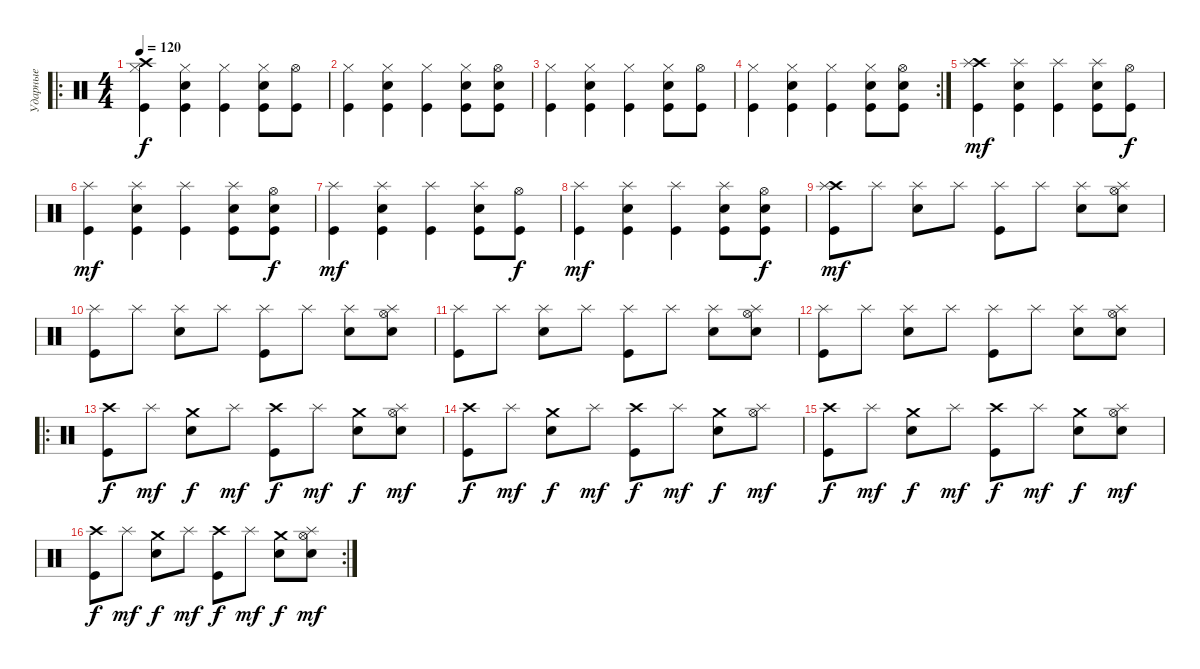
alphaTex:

\track ("Ударные" "Ударные") {instrument percussion}
\staff
\articulation defaults
\ro
\ts (4 4)
\tempo 120
\clef neutral
\ks c
("Crash high (hit)" "Hi-Hat (closed)" "Kick (hit)").4{dy f} ("Hi-Hat (closed)" "Snare (hit) 2" "Kick (hit)").4 ("Hi-Hat (closed)" "Kick (hit)").4 ("Hi-Hat (closed)" "Snare (hit) 2" "Kick (hit)").8 ("Hi-Hat (open)" "Kick (hit)").8 |
("Hi-Hat (closed)" "Kick (hit)").4 ("Hi-Hat (closed)" "Snare (hit) 2" "Kick (hit)").4 ("Hi-Hat (closed)" "Kick (hit)").4 ("Hi-Hat (closed)" "Snare (hit) 2" "Kick (hit)").8 ("Hi-Hat (open)" "Snare (hit) 2" "Kick (hit)").8 |
("Hi-Hat (closed)" "Kick (hit)").4 ("Hi-Hat (closed)" "Snare (hit) 2" "Kick (hit)").4 ("Hi-Hat (closed)" "Kick (hit)").4 ("Hi-Hat (closed)" "Snare (hit) 2" "Kick (hit)").8 ("Hi-Hat (open)" "Kick (hit)").8 |
\rc 2
("Hi-Hat (closed)" "Kick (hit)").4 ("Hi-Hat (closed)" "Snare (hit) 2" "Kick (hit)").4 ("Hi-Hat (closed)" "Kick (hit)").4 ("Hi-Hat (closed)" "Snare (hit) 2" "Kick (hit)").8 ("Hi-Hat (open)" "Snare (hit) 2" "Kick (hit)").8 |
("Crash high (hit)" "Splash (hit)" "Kick (hit)").4{dy mf} ("Splash (hit)" "Snare (hit) 2" "Kick (hit)").4 ("Splash (hit)" "Kick (hit)").4 ("Splash (hit)" "Snare (hit) 2" "Kick (hit)").8 ("Hi-Hat (open)" "Kick (hit)").8{dy f} |
("Splash (hit)" "Kick (hit)").4{dy mf} ("Splash (hit)" "Snare (hit) 2" "Kick (hit)").4 ("Splash (hit)" "Kick (hit)").4 ("Splash (hit)" "Snare (hit) 2" "Kick (hit)").8 ("Hi-Hat (open)" "Snare (hit) 2" "Kick (hit)").8{dy f} |
("Splash (hit)" "Kick (hit)").4{dy mf} ("Splash (hit)" "Snare (hit) 2" "Kick (hit)").4 ("Splash (hit)" "Kick (hit)").4 ("Splash (hit)" "Snare (hit) 2" "Kick (hit)").8 ("Hi-Hat (open)" "Kick (hit)").8{dy f} |
("Splash (hit)" "Kick (hit)").4{dy mf} ("Splash (hit)" "Snare (hit) 2" "Kick (hit)").4 ("Splash (hit)" "Kick (hit)").4 ("Splash (hit)" "Snare (hit) 2" "Kick (hit)").8 ("Hi-Hat (open)" "Snare (hit) 2" "Kick (hit)").8{dy f} |
("Crash high (hit)" "Splash (hit)" "Kick (hit)").8{dy mf} "Splash (hit)".8 ("Splash (hit)" "Snare (hit) 2").8 "Splash (hit)".8 ("Splash (hit)" "Kick (hit)").8 "Splash (hit)".8 ("Splash (hit)" "Snare (hit) 2").8 ("Splash (hit)" "Hi-Hat (open)" "Snare (hit) 2").8 |
("Splash (hit)" "Kick (hit)").8 "Splash (hit)".8 ("Splash (hit)" "Snare (hit) 2").8 "Splash (hit)".8 ("Splash (hit)" "Kick (hit)").8 "Splash (hit)".8 ("Splash (hit)" "Snare (hit) 2").8 ("Splash (hit)" "Hi-Hat (open)" "Snare (hit) 2").8 |
("Splash (hit)" "Kick (hit)").8 "Splash (hit)".8 ("Splash (hit)" "Snare (hit) 2").8 "Splash (hit)".8 ("Splash (hit)" "Kick (hit)").8 "Splash (hit)".8 ("Splash (hit)" "Snare (hit) 2").8 ("Splash (hit)" "Hi-Hat (open)" "Snare (hit) 2").8 |
("Splash (hit)" "Kick (hit)").8 "Splash (hit)".8 ("Splash (hit)" "Snare (hit) 2").8 "Splash (hit)".8 ("Splash (hit)" "Kick (hit)").8 "Splash (hit)".8 ("Splash (hit)" "Snare (hit) 2").8 ("Splash (hit)" "Hi-Hat (open)" "Snare (hit) 2").8 |
\ro
("Crash high (hit)" "Kick (hit)").8{dy f} "Splash (hit)".8{dy mf} ("Crash medium (hit)" "Snare (hit) 2").8{dy f} "Splash (hit)".8{dy mf} ("Crash high (hit)" "Kick (hit)").8{dy f} "Splash (hit)".8{dy mf} ("Crash medium (hit)" "Snare (hit) 2").8{dy f} ("Splash (hit)" "Hi-Hat (open)" "Snare (hit) 2").8{dy mf} |
("Crash high (hit)" "Kick (hit)").8{dy f} "Splash (hit)".8{dy mf} ("Crash medium (hit)" "Snare (hit) 2").8{dy f} "Splash (hit)".8{dy mf} ("Crash high (hit)" "Kick (hit)").8{dy f} "Splash (hit)".8{dy mf} ("Crash medium (hit)" "Snare (hit) 2").8{dy f} ("Splash (hit)" "Hi-Hat (open)").8{dy mf} |
("Crash high (hit)" "Kick (hit)").8{dy f} "Splash (hit)".8{dy mf} ("Crash medium (hit)" "Snare (hit) 2").8{dy f} "Splash (hit)".8{dy mf} ("Crash high (hit)" "Kick (hit)").8{dy f} "Splash (hit)".8{dy mf} ("Crash medium (hit)" "Snare (hit) 2").8{dy f} ("Splash (hit)" "Hi-Hat (open)" "Snare (hit) 2").8{dy mf} |
\rc 2
("Crash high (hit)" "Kick (hit)").8{dy f} "Splash (hit)".8{dy mf} ("Crash medium (hit)" "Snare (hit) 2").8{dy f} "Splash (hit)".8{dy mf} ("Crash high (hit)" "Kick (hit)").8{dy f} "Splash (hit)".8{dy mf} ("Crash medium (hit)" "Snare (hit) 2").8{dy f} ("Splash (hit)" "Hi-Hat (open)" "Snare (hit) 2").8{dy mf}
